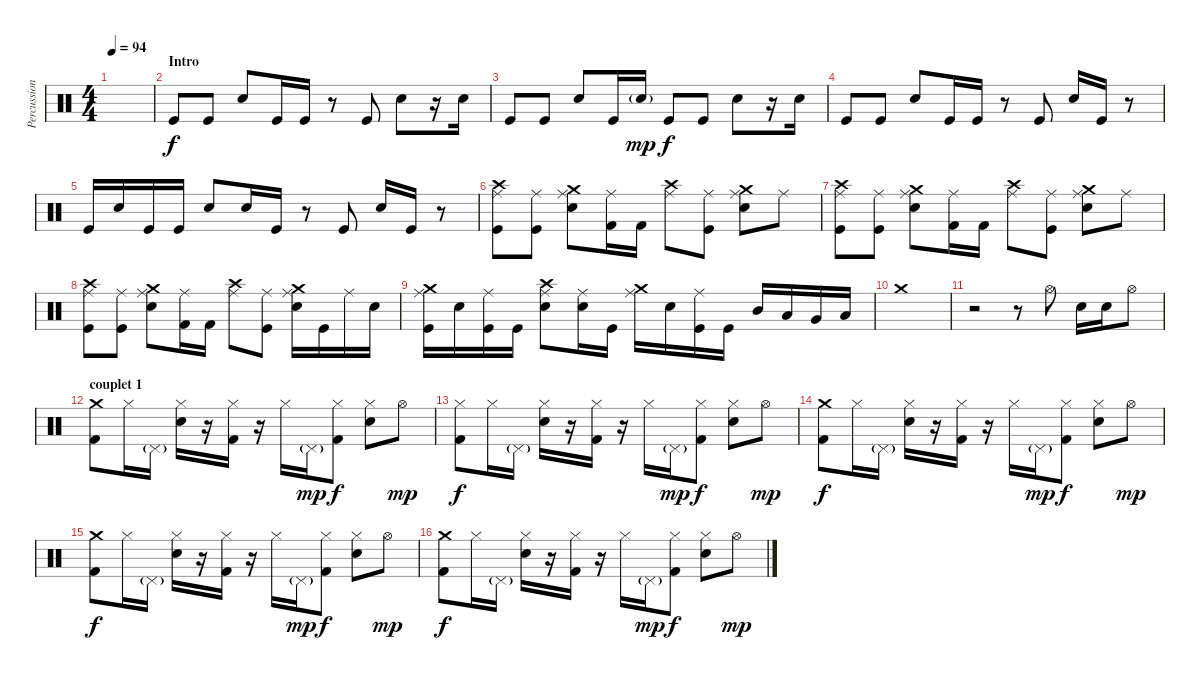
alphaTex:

\track ("Percussions" "Percussion") {instrument percussion}
\staff {score}
\articulation defaults
\ts (4 4)
\tempo 94
\clef neutral
\ks c
|
\section ("" "Intro")
"Kick (hit)".8{volume 0} "Kick (hit)".8{volume 13} "Snare (hit) 2".8 "Kick (hit)".16 "Kick (hit)".16 r.8 "Kick (hit)".8 "Snare (hit) 2".8 r.16 "Snare (hit) 2".16 |
"Kick (hit)".8 "Kick (hit)".8 "Snare (hit) 2".8 "Kick (hit)".16 "Snare (hit) 2"{g}.16{dy mp balance 0} "Kick (hit)".8{dy f volume 16 balance 8} "Kick (hit)".8 "Snare (hit) 2".8 r.16 "Snare (hit) 2".16 |
"Kick (hit)".8 "Kick (hit)".8 "Snare (hit) 2".8 "Kick (hit)".16 "Kick (hit)".16 r.8 "Kick (hit)".8 "Snare (hit) 2".16 "Kick (hit)".16 r.8 |
"Kick (hit)".16 "Snare (hit) 2".16 "Kick (hit)".16 "Kick (hit)".16 "Snare (hit) 2".8 "Snare (hit) 2".16 "Kick (hit)".16 r.8 "Kick (hit)".8 "Snare (hit) 2".16 "Kick (hit)".16 r.8 |
("Crash high (hit)" "Ride (middle)" "Kick (hit)").8{volume 16} ("Ride (middle)" "Kick (hit)").8 ("Crash medium (hit)" "Ride (middle)" "Electric Snare (hit)").8 ("Ride (middle)" "Kick (hit) 2").16 "Kick (hit) 2".16 ("Crash high (hit)" "Ride (middle)").8 ("Ride (middle)" "Kick (hit)").8 ("Crash medium (hit)" "Ride (middle)" "Electric Snare (hit)").8 "Ride (middle)".8 |
("Crash high (hit)" "Ride (middle)" "Kick (hit)").8 ("Ride (middle)" "Kick (hit)").8 ("Crash medium (hit)" "Ride (middle)" "Electric Snare (hit)").8 ("Ride (middle)" "Kick (hit) 2").16 "Kick (hit) 2".16 ("Crash high (hit)" "Ride (middle)").8 ("Ride (middle)" "Kick (hit)").8 ("Crash medium (hit)" "Ride (middle)" "Electric Snare (hit)").8 "Ride (middle)".8 |
("Crash high (hit)" "Ride (middle)" "Kick (hit)").8 ("Ride (middle)" "Kick (hit)").8 ("Crash medium (hit)" "Ride (middle)" "Electric Snare (hit)").8 ("Ride (middle)" "Kick (hit) 2").16 "Kick (hit) 2".16 ("Crash high (hit)" "Ride (middle)").8 ("Ride (middle)" "Kick (hit)").8 ("Crash medium (hit)" "Ride (middle)" "Electric Snare (hit)").16 "Kick (hit)".16 "Ride (middle)".16 "Electric Snare (hit)".16 |
("Crash medium (hit)" "Ride (middle)" "Kick (hit)").16 "Electric Snare (hit)".16 ("Ride (middle)" "Kick (hit)").16 "Kick (hit)".16 ("Crash high (hit)" "Ride (middle)" "Electric Snare (hit)").8 ("Ride (middle)" "Electric Snare (hit)").16 "Kick (hit)".16 ("Crash medium (hit)" "Ride (middle)").16 "Electric Snare (hit)".16 ("Ride (middle)" "Kick (hit)").16 "Kick (hit)".16 "Mid Tom (hit)".16 "Low Tom (hit)".16 "Very Low Tom (hit)".16 "Low Floor Tom (hit)".16 |
"Crash medium (hit)".1 |
r.2 r.8 "Hi-Hat (open)".8 "Electric Snare (hit)".16 "Electric Snare (hit)".16 "Hi-Hat (open)".8 |
\section ("" "couplet 1")
("Crash medium (hit)" "Kick (hit) 2").8 "Hi-Hat (closed)".16 "Pedal Hi-Hat (hit)"{g}.16 ("Hi-Hat (closed)" "Electric Snare (hit)").16 r.16 ("Hi-Hat (closed)" "Kick (hit) 2").16 r.16 "Hi-Hat (closed)".16 "Pedal Hi-Hat (hit)"{g}.16{dy mp} ("Hi-Hat (closed)" "Kick (hit) 2").8{dy f} ("Hi-Hat (closed)" "Electric Snare (hit)").8 "Hi-Hat (open)".8{dy mp} |
("Hi-Hat (closed)" "Kick (hit) 2").8{dy f} "Hi-Hat (closed)".16 "Pedal Hi-Hat (hit)"{g}.16 ("Hi-Hat (closed)" "Electric Snare (hit)").16 r.16 ("Hi-Hat (closed)" "Kick (hit) 2").16 r.16 "Hi-Hat (closed)".16 "Pedal Hi-Hat (hit)"{g}.16{dy mp} ("Hi-Hat (closed)" "Kick (hit) 2").8{dy f} ("Hi-Hat (closed)" "Electric Snare (hit)").8 "Hi-Hat (open)".8{dy mp} |
("Crash medium (hit)" "Kick (hit) 2").8{dy f} "Hi-Hat (closed)".16 "Pedal Hi-Hat (hit)"{g}.16 ("Hi-Hat (closed)" "Electric Snare (hit)").16 r.16 ("Hi-Hat (closed)" "Kick (hit) 2").16 r.16 "Hi-Hat (closed)".16 "Pedal Hi-Hat (hit)"{g}.16{dy mp} ("Hi-Hat (closed)" "Kick (hit) 2").8{dy f} ("Hi-Hat (closed)" "Electric Snare (hit)").8 "Hi-Hat (open)".8{dy mp} |
("Crash medium (hit)" "Kick (hit) 2").8{dy f} "Hi-Hat (closed)".16 "Pedal Hi-Hat (hit)"{g}.16 ("Hi-Hat (closed)" "Electric Snare (hit)").16 r.16 ("Hi-Hat (closed)" "Kick (hit) 2").16 r.16 "Hi-Hat (closed)".16 "Pedal Hi-Hat (hit)"{g}.16{dy mp} ("Hi-Hat (closed)" "Kick (hit) 2").8{dy f} ("Hi-Hat (closed)" "Electric Snare (hit)").8 "Hi-Hat (open)".8{dy mp} |
("Crash medium (hit)" "Kick (hit) 2").8{dy f} "Hi-Hat (closed)".16 "Pedal Hi-Hat (hit)"{g}.16 ("Hi-Hat (closed)" "Electric Snare (hit)").16 r.16 ("Hi-Hat (closed)" "Kick (hit) 2").16 r.16 "Hi-Hat (closed)".16 "Pedal Hi-Hat (hit)"{g}.16{dy mp} ("Hi-Hat (closed)" "Kick (hit) 2").8{dy f} ("Hi-Hat (closed)" "Electric Snare (hit)").8 "Hi-Hat (open)".8{dy mp}
